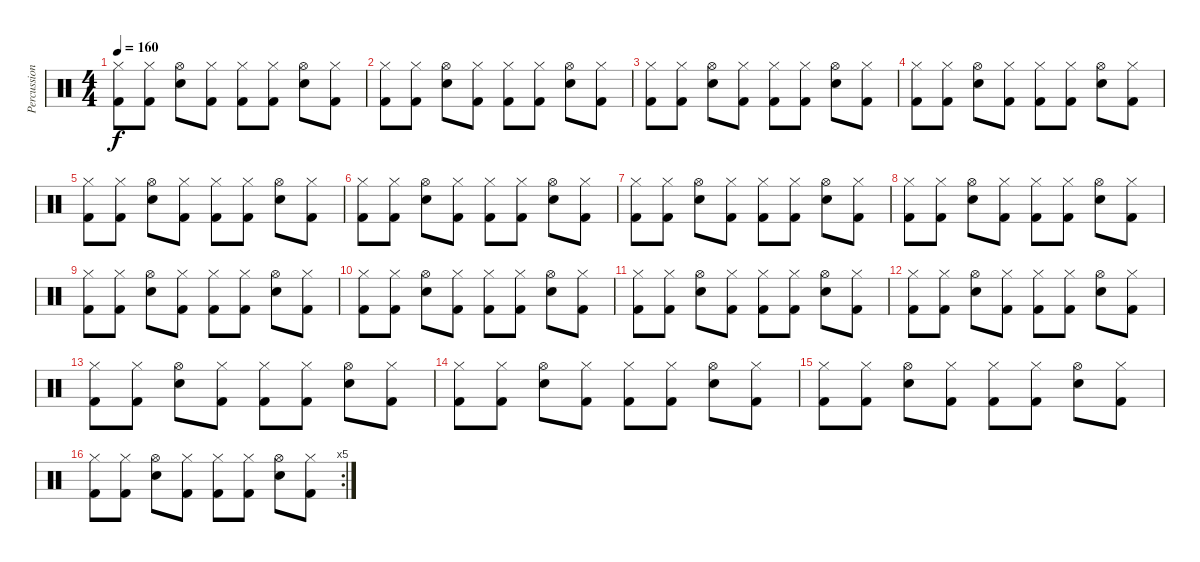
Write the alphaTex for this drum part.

\track ("Percussion" "Percussion") {instrument percussion}
\staff {score}
\articulation defaults
\ts (4 4)
\tempo 160
\clef neutral
\ks c
("Hi-Hat (closed)" "Kick (hit) 2").8{dy f} ("Hi-Hat (closed)" "Kick (hit) 2").8 ("Hi-Hat (open)" "Snare (hit) 2").8 ("Hi-Hat (closed)" "Kick (hit) 2").8 ("Hi-Hat (closed)" "Kick (hit) 2").8 ("Hi-Hat (closed)" "Kick (hit) 2").8 ("Hi-Hat (open)" "Snare (hit) 2").8 ("Hi-Hat (closed)" "Kick (hit) 2").8 |
("Hi-Hat (closed)" "Kick (hit) 2").8 ("Hi-Hat (closed)" "Kick (hit) 2").8 ("Hi-Hat (open)" "Snare (hit) 2").8 ("Hi-Hat (closed)" "Kick (hit) 2").8 ("Hi-Hat (closed)" "Kick (hit) 2").8 ("Hi-Hat (closed)" "Kick (hit) 2").8 ("Hi-Hat (open)" "Snare (hit) 2").8 ("Hi-Hat (closed)" "Kick (hit) 2").8 |
("Hi-Hat (closed)" "Kick (hit) 2").8 ("Hi-Hat (closed)" "Kick (hit) 2").8 ("Hi-Hat (open)" "Snare (hit) 2").8 ("Hi-Hat (closed)" "Kick (hit) 2").8 ("Hi-Hat (closed)" "Kick (hit) 2").8 ("Hi-Hat (closed)" "Kick (hit) 2").8 ("Hi-Hat (open)" "Snare (hit) 2").8 ("Hi-Hat (closed)" "Kick (hit) 2").8 |
("Hi-Hat (closed)" "Kick (hit) 2").8 ("Hi-Hat (closed)" "Kick (hit) 2").8 ("Hi-Hat (open)" "Snare (hit) 2").8 ("Hi-Hat (closed)" "Kick (hit) 2").8 ("Hi-Hat (closed)" "Kick (hit) 2").8 ("Hi-Hat (closed)" "Kick (hit) 2").8 ("Hi-Hat (open)" "Snare (hit) 2").8 ("Hi-Hat (closed)" "Kick (hit) 2").8 |
("Hi-Hat (closed)" "Kick (hit) 2").8 ("Hi-Hat (closed)" "Kick (hit) 2").8 ("Hi-Hat (open)" "Snare (hit) 2").8 ("Hi-Hat (closed)" "Kick (hit) 2").8 ("Hi-Hat (closed)" "Kick (hit) 2").8 ("Hi-Hat (closed)" "Kick (hit) 2").8 ("Hi-Hat (open)" "Snare (hit) 2").8 ("Hi-Hat (closed)" "Kick (hit) 2").8 |
("Hi-Hat (closed)" "Kick (hit) 2").8 ("Hi-Hat (closed)" "Kick (hit) 2").8 ("Hi-Hat (open)" "Snare (hit) 2").8 ("Hi-Hat (closed)" "Kick (hit) 2").8 ("Hi-Hat (closed)" "Kick (hit) 2").8 ("Hi-Hat (closed)" "Kick (hit) 2").8 ("Hi-Hat (open)" "Snare (hit) 2").8 ("Hi-Hat (closed)" "Kick (hit) 2").8 |
("Hi-Hat (closed)" "Kick (hit) 2").8 ("Hi-Hat (closed)" "Kick (hit) 2").8 ("Hi-Hat (open)" "Snare (hit) 2").8 ("Hi-Hat (closed)" "Kick (hit) 2").8 ("Hi-Hat (closed)" "Kick (hit) 2").8 ("Hi-Hat (closed)" "Kick (hit) 2").8 ("Hi-Hat (open)" "Snare (hit) 2").8 ("Hi-Hat (closed)" "Kick (hit) 2").8 |
("Hi-Hat (closed)" "Kick (hit) 2").8 ("Hi-Hat (closed)" "Kick (hit) 2").8 ("Hi-Hat (open)" "Snare (hit) 2").8 ("Hi-Hat (closed)" "Kick (hit) 2").8 ("Hi-Hat (closed)" "Kick (hit) 2").8 ("Hi-Hat (closed)" "Kick (hit) 2").8 ("Hi-Hat (open)" "Snare (hit) 2").8 ("Hi-Hat (closed)" "Kick (hit) 2").8 |
("Hi-Hat (closed)" "Kick (hit) 2").8 ("Hi-Hat (closed)" "Kick (hit) 2").8 ("Hi-Hat (open)" "Snare (hit) 2").8 ("Hi-Hat (closed)" "Kick (hit) 2").8 ("Hi-Hat (closed)" "Kick (hit) 2").8 ("Hi-Hat (closed)" "Kick (hit) 2").8 ("Hi-Hat (open)" "Snare (hit) 2").8 ("Hi-Hat (closed)" "Kick (hit) 2").8 |
("Hi-Hat (closed)" "Kick (hit) 2").8 ("Hi-Hat (closed)" "Kick (hit) 2").8 ("Hi-Hat (open)" "Snare (hit) 2").8 ("Hi-Hat (closed)" "Kick (hit) 2").8 ("Hi-Hat (closed)" "Kick (hit) 2").8 ("Hi-Hat (closed)" "Kick (hit) 2").8 ("Hi-Hat (open)" "Snare (hit) 2").8 ("Hi-Hat (closed)" "Kick (hit) 2").8 |
("Hi-Hat (closed)" "Kick (hit) 2").8 ("Hi-Hat (closed)" "Kick (hit) 2").8 ("Hi-Hat (open)" "Snare (hit) 2").8 ("Hi-Hat (closed)" "Kick (hit) 2").8 ("Hi-Hat (closed)" "Kick (hit) 2").8 ("Hi-Hat (closed)" "Kick (hit) 2").8 ("Hi-Hat (open)" "Snare (hit) 2").8 ("Hi-Hat (closed)" "Kick (hit) 2").8 |
("Hi-Hat (closed)" "Kick (hit) 2").8 ("Hi-Hat (closed)" "Kick (hit) 2").8 ("Hi-Hat (open)" "Snare (hit) 2").8 ("Hi-Hat (closed)" "Kick (hit) 2").8 ("Hi-Hat (closed)" "Kick (hit) 2").8 ("Hi-Hat (closed)" "Kick (hit) 2").8 ("Hi-Hat (open)" "Snare (hit) 2").8 ("Hi-Hat (closed)" "Kick (hit) 2").8 |
("Hi-Hat (closed)" "Kick (hit) 2").8 ("Hi-Hat (closed)" "Kick (hit) 2").8 ("Hi-Hat (open)" "Snare (hit) 2").8 ("Hi-Hat (closed)" "Kick (hit) 2").8 ("Hi-Hat (closed)" "Kick (hit) 2").8 ("Hi-Hat (closed)" "Kick (hit) 2").8 ("Hi-Hat (open)" "Snare (hit) 2").8 ("Hi-Hat (closed)" "Kick (hit) 2").8 |
("Hi-Hat (closed)" "Kick (hit) 2").8 ("Hi-Hat (closed)" "Kick (hit) 2").8 ("Hi-Hat (open)" "Snare (hit) 2").8 ("Hi-Hat (closed)" "Kick (hit) 2").8 ("Hi-Hat (closed)" "Kick (hit) 2").8 ("Hi-Hat (closed)" "Kick (hit) 2").8 ("Hi-Hat (open)" "Snare (hit) 2").8 ("Hi-Hat (closed)" "Kick (hit) 2").8 |
("Hi-Hat (closed)" "Kick (hit) 2").8 ("Hi-Hat (closed)" "Kick (hit) 2").8 ("Hi-Hat (open)" "Snare (hit) 2").8 ("Hi-Hat (closed)" "Kick (hit) 2").8 ("Hi-Hat (closed)" "Kick (hit) 2").8 ("Hi-Hat (closed)" "Kick (hit) 2").8 ("Hi-Hat (open)" "Snare (hit) 2").8 ("Hi-Hat (closed)" "Kick (hit) 2").8 |
\rc 5
("Hi-Hat (closed)" "Kick (hit) 2").8 ("Hi-Hat (closed)" "Kick (hit) 2").8 ("Hi-Hat (open)" "Snare (hit) 2").8 ("Hi-Hat (closed)" "Kick (hit) 2").8 ("Hi-Hat (closed)" "Kick (hit) 2").8 ("Hi-Hat (closed)" "Kick (hit) 2").8 ("Hi-Hat (open)" "Snare (hit) 2").8 ("Hi-Hat (closed)" "Kick (hit) 2").8
